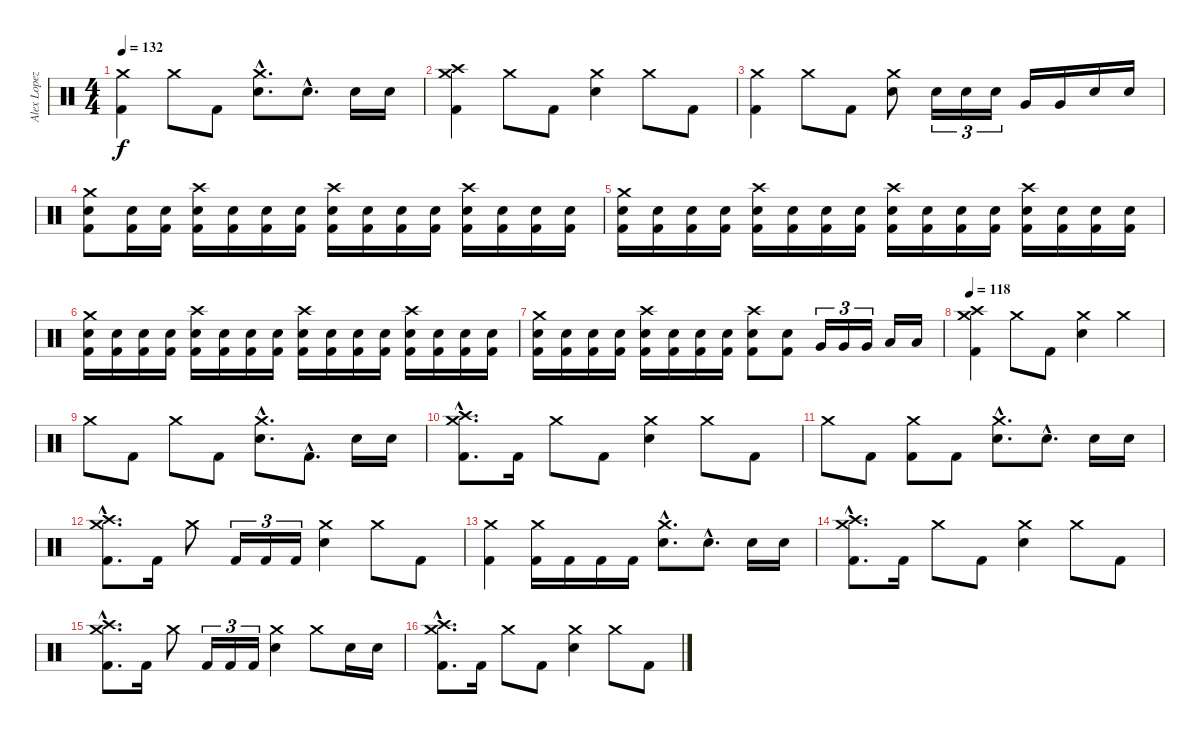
\track ("Alex Lopez" "Alex Lopez") {instrument percussion}
\staff {score}
\articulation defaults
\ts (4 4)
\tempo 132
\clef neutral
\ks c
("Crash medium (hit)" "Kick (hit) 2").4{dy f} "Crash medium (hit)".8 "Kick (hit) 2".8 ("Crash medium (hit)"{hac} "Snare (hit) 2"{hac}).8{d} "Snare (hit) 2"{hac}.8{d} "Snare (hit) 2".16 "Snare (hit) 2".16 |
("Crash medium (hit)" "Crash high (hit)" "Kick (hit) 2").4 "Crash medium (hit)".8 "Kick (hit) 2".8 ("Crash medium (hit)" "Snare (hit) 2").4 "Crash medium (hit)".8 "Kick (hit) 2".8 |
("Crash medium (hit)" "Kick (hit) 2").4 "Crash medium (hit)".8 "Kick (hit) 2".8 ("Crash medium (hit)" "Snare (hit) 2").8 "Snare (hit) 2".16{tu (3 2)} "Snare (hit) 2".16{tu (3 2)} "Snare (hit) 2".16{tu (3 2)} "Very Low Tom (hit)".16 "Very Low Tom (hit)".16 "Snare (hit) 2".16 "Snare (hit) 2".16 |
("Crash medium (hit)" "Snare (hit) 2" "Kick (hit) 2").8 ("Snare (hit) 2" "Kick (hit) 2").16 ("Snare (hit) 2" "Kick (hit) 2").16 ("Crash high (hit)" "Snare (hit) 2" "Kick (hit) 2").16 ("Snare (hit) 2" "Kick (hit) 2").16 ("Snare (hit) 2" "Kick (hit) 2").16 ("Snare (hit) 2" "Kick (hit) 2").16 ("Crash high (hit)" "Snare (hit) 2" "Kick (hit) 2").16 ("Snare (hit) 2" "Kick (hit) 2").16 ("Snare (hit) 2" "Kick (hit) 2").16 ("Snare (hit) 2" "Kick (hit) 2").16 ("Crash high (hit)" "Snare (hit) 2" "Kick (hit) 2").16 ("Snare (hit) 2" "Kick (hit) 2").16 ("Snare (hit) 2" "Kick (hit) 2").16 ("Snare (hit) 2" "Kick (hit) 2").16 |
("Crash medium (hit)" "Snare (hit) 2" "Kick (hit) 2").16 ("Snare (hit) 2" "Kick (hit) 2").16 ("Snare (hit) 2" "Kick (hit) 2").16 ("Snare (hit) 2" "Kick (hit) 2").16 ("Crash high (hit)" "Snare (hit) 2" "Kick (hit) 2").16 ("Snare (hit) 2" "Kick (hit) 2").16 ("Snare (hit) 2" "Kick (hit) 2").16 ("Snare (hit) 2" "Kick (hit) 2").16 ("Crash high (hit)" "Snare (hit) 2" "Kick (hit) 2").16 ("Snare (hit) 2" "Kick (hit) 2").16 ("Snare (hit) 2" "Kick (hit) 2").16 ("Snare (hit) 2" "Kick (hit) 2").16 ("Crash high (hit)" "Snare (hit) 2" "Kick (hit) 2").16 ("Snare (hit) 2" "Kick (hit) 2").16 ("Snare (hit) 2" "Kick (hit) 2").16 ("Snare (hit) 2" "Kick (hit) 2").16 |
("Crash medium (hit)" "Snare (hit) 2" "Kick (hit) 2").16 ("Snare (hit) 2" "Kick (hit) 2").16 ("Snare (hit) 2" "Kick (hit) 2").16 ("Snare (hit) 2" "Kick (hit) 2").16 ("Crash high (hit)" "Snare (hit) 2" "Kick (hit) 2").16 ("Snare (hit) 2" "Kick (hit) 2").16 ("Snare (hit) 2" "Kick (hit) 2").16 ("Snare (hit) 2" "Kick (hit) 2").16 ("Crash high (hit)" "Snare (hit) 2" "Kick (hit) 2").16 ("Snare (hit) 2" "Kick (hit) 2").16 ("Snare (hit) 2" "Kick (hit) 2").16 ("Snare (hit) 2" "Kick (hit) 2").16 ("Crash high (hit)" "Snare (hit) 2" "Kick (hit) 2").16 ("Snare (hit) 2" "Kick (hit) 2").16 ("Snare (hit) 2" "Kick (hit) 2").16 ("Snare (hit) 2" "Kick (hit) 2").16 |
("Crash medium (hit)" "Snare (hit) 2" "Kick (hit) 2").16 ("Snare (hit) 2" "Kick (hit) 2").16 ("Snare (hit) 2" "Kick (hit) 2").16 ("Snare (hit) 2" "Kick (hit) 2").16 ("Crash high (hit)" "Snare (hit) 2" "Kick (hit) 2").16 ("Snare (hit) 2" "Kick (hit) 2").16 ("Snare (hit) 2" "Kick (hit) 2").16 ("Snare (hit) 2" "Kick (hit) 2").16 ("Crash high (hit)" "Snare (hit) 2" "Kick (hit) 2").8 ("Snare (hit) 2" "Kick (hit) 2").8 "Very Low Tom (hit)".16{tu (3 2)} "Very Low Tom (hit)".16{tu (3 2)} "Very Low Tom (hit)".16{tu (3 2)} "Low Tom (hit)".16 "Low Tom (hit)".16 |
\tempo 118
("Crash medium (hit)" "Crash high (hit)" "Kick (hit) 2").4 "Crash medium (hit)".8 "Kick (hit) 2".8 ("Crash medium (hit)" "Snare (hit) 2").4 "Crash medium (hit)".4 |
"Crash medium (hit)".8 "Kick (hit) 2".8 "Crash medium (hit)".8 "Kick (hit) 2".8 ("Crash medium (hit)"{hac} "Snare (hit) 2"{hac}).8{d} "Kick (hit) 2"{hac}.8{d} "Snare (hit) 2".16 "Snare (hit) 2".16 |
("Crash medium (hit)"{hac} "Crash high (hit)"{hac} "Kick (hit) 2"{hac}).8{d} "Kick (hit) 2".16 "Crash medium (hit)".8 "Kick (hit) 2".8 ("Crash medium (hit)" "Snare (hit) 2").4 "Crash medium (hit)".8 "Kick (hit) 2".8 |
"Crash medium (hit)".8 "Kick (hit) 2".8 ("Crash medium (hit)" "Kick (hit) 2").8 "Kick (hit) 2".8 ("Crash medium (hit)"{hac} "Snare (hit) 2"{hac}).8{d} "Snare (hit) 2"{hac}.8{d} "Snare (hit) 2".16 "Snare (hit) 2".16 |
("Crash medium (hit)"{hac} "Crash high (hit)"{hac} "Kick (hit) 2"{hac}).8{d} "Kick (hit) 2".16 "Crash medium (hit)".8 "Kick (hit) 2".16{tu (3 2)} "Kick (hit) 2".16{tu (3 2)} "Kick (hit) 2".16{tu (3 2)} ("Crash medium (hit)" "Snare (hit) 2").4 "Crash medium (hit)".8 "Kick (hit) 2".8 |
("Crash medium (hit)" "Kick (hit) 2").4 ("Crash medium (hit)" "Kick (hit) 2").16 "Kick (hit) 2".16 "Kick (hit) 2".16 "Kick (hit) 2".16 ("Crash medium (hit)"{hac} "Snare (hit) 2"{hac}).8{d} "Snare (hit) 2"{hac}.8{d} "Snare (hit) 2".16 "Snare (hit) 2".16 |
("Crash medium (hit)"{hac} "Crash high (hit)"{hac} "Kick (hit) 2"{hac}).8{d} "Kick (hit) 2".16 "Crash medium (hit)".8 "Kick (hit) 2".8 ("Crash medium (hit)" "Snare (hit) 2").4 "Crash medium (hit)".8 "Kick (hit) 2".8 |
("Crash medium (hit)"{hac} "Crash high (hit)"{hac} "Kick (hit) 2"{hac}).8{d} "Kick (hit) 2".16 "Crash medium (hit)".8 "Kick (hit) 2".16{tu (3 2)} "Kick (hit) 2".16{tu (3 2)} "Kick (hit) 2".16{tu (3 2)} ("Crash medium (hit)" "Snare (hit) 2").4 "Crash medium (hit)".8 "Snare (hit) 2".16 "Snare (hit) 2".16 |
("Crash medium (hit)"{hac} "Crash high (hit)"{hac} "Kick (hit) 2"{hac}).8{d} "Kick (hit) 2".16 "Crash medium (hit)".8 "Kick (hit) 2".8 ("Crash medium (hit)" "Snare (hit) 2").4 "Crash medium (hit)".8 "Kick (hit) 2".8
